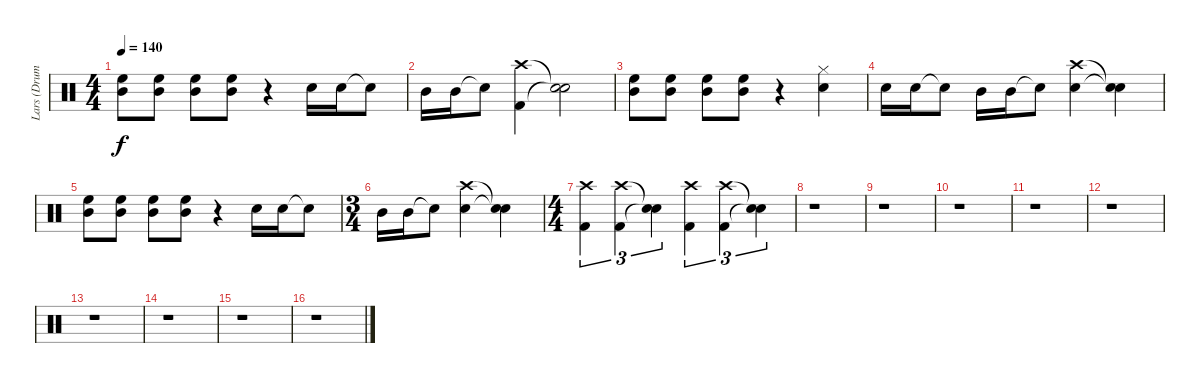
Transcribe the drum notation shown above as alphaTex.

\track ("Lars (Drums)" "Lars (Drum") {instrument percussion}
\staff {score}
\articulation defaults
\ts (4 4)
\tempo 140
\clef neutral
\ks c
("High Floor Tom (hit)" "Mid Tom (hit)").8{dy f} ("High Floor Tom (hit)" "Mid Tom (hit)").8 ("High Floor Tom (hit)" "Mid Tom (hit)").8 ("High Floor Tom (hit)" "Mid Tom (hit)").8 r.4 "Snare (hit) 2".16 "Snare (hit) 2".16 "Snare (hit)"{t}.8 |
"Mid Tom (hit)".16 "Mid Tom (hit)".16 "Snare (hit)"{t}.8 ("Crash high (hit)" "Kick (hit) 2").4 ("Snare (hit)"{t} "Snare (hit)"{t}).2 |
("High Floor Tom (hit)" "Mid Tom (hit)").8 ("High Floor Tom (hit)" "Mid Tom (hit)").8 ("High Floor Tom (hit)" "Mid Tom (hit)").8 ("High Floor Tom (hit)" "Mid Tom (hit)").8 r.4 ("Hi-Hat (closed)" "Snare (hit) 2").4 |
"Snare (hit) 2".16 "Snare (hit) 2".16 "Snare (hit)"{t}.8 "Mid Tom (hit)".16 "Mid Tom (hit)".16 "Snare (hit)"{t}.8 ("Crash high (hit)" "Snare (hit) 2").4 ("Snare (hit)"{t} "Snare (hit)"{t}).4 |
("High Floor Tom (hit)" "Mid Tom (hit)").8 ("High Floor Tom (hit)" "Mid Tom (hit)").8 ("High Floor Tom (hit)" "Mid Tom (hit)").8 ("High Floor Tom (hit)" "Mid Tom (hit)").8 r.4 "Snare (hit) 2".16 "Snare (hit) 2".16 "Snare (hit)"{t}.8 |
\ts (3 4)
"Mid Tom (hit)".16 "Mid Tom (hit)".16 "Snare (hit)"{t}.8 ("Crash high (hit)" "Snare (hit) 2").4 ("Snare (hit)"{t} "Snare (hit)"{t}).4 |
\ts (4 4)
("Crash high (hit)" "Kick (hit) 2").4{tu (3 2)} ("Crash high (hit)" "Kick (hit) 2").4{tu (3 2)} ("Snare (hit)"{t} "Snare (hit)"{t}).4{tu (3 2)} ("Crash high (hit)" "Kick (hit) 2").4{tu (3 2)} ("Crash high (hit)" "Kick (hit) 2").4{tu (3 2)} ("Snare (hit)"{t} "Snare (hit)"{t}).4{tu (3 2)} |
r.1 |
r.1 |
r.1 |
r.1 |
r.1 |
r.1 |
r.1 |
r.1 |
r.1
